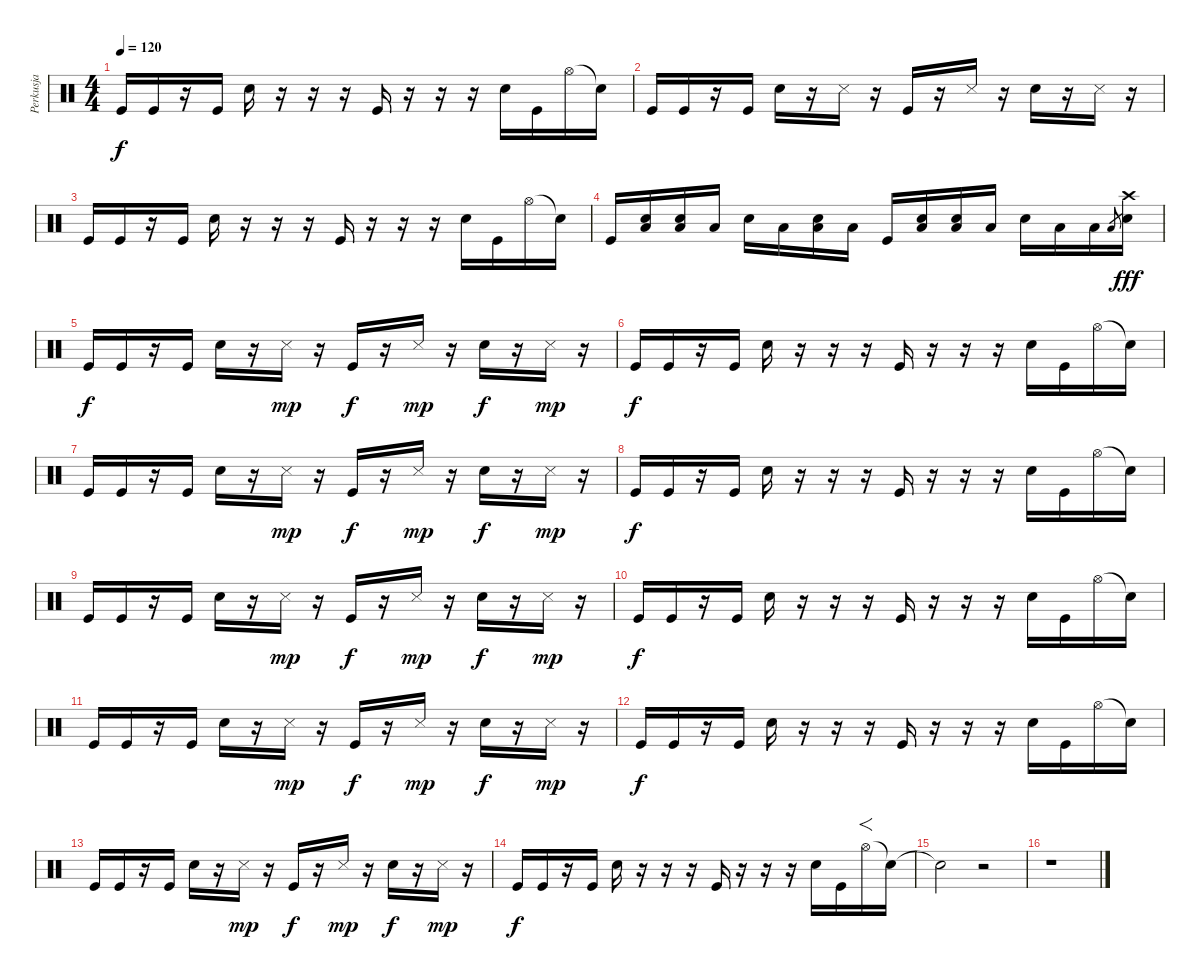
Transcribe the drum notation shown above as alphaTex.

\track ("Perkusja" "Perkusja") {instrument percussion}
\staff {score}
\articulation defaults
\ts (4 4)
\tempo 120
\clef neutral
\ks c "Kick (hit)".16{dy f} "Kick (hit)".16
r.16 "Kick (hit)".16 "Snare (hit) 2".16 r.16 r.16 r.16 "Kick (hit)".16 r.16 r.16 r.16 "Snare (hit) 2".16 "Kick (hit)".16 "Hi-Hat (open)".16 "Snare (hit)"{t}.16 |
"Kick (hit)".16 "Kick (hit)".16 r.16 "Kick (hit)".16 "Snare (hit) 2".16 r.16 "Snare (side stick) 3".16 r.16 "Kick (hit)".16 r.16 "Snare (side stick) 3".16 r.16 "Snare (hit) 2".16 r.16 "Snare (side stick) 3".16 r.16 |
"Kick (hit)".16 "Kick (hit)".16 r.16 "Kick (hit)".16 "Snare (hit) 2".16 r.16 r.16 r.16 "Kick (hit)".16 r.16 r.16 r.16 "Snare (hit) 2".16 "Kick (hit)".16 "Hi-Hat (open)".16 "Snare (hit)"{t}.16 |
"Kick (hit)".16 ("Low Tom (hit)" "Metronome (bell)").16 ("Electric Snare (hit)" "Low Tom (hit)").16 "Low Tom (hit)".16 "Snare (hit) 2".16 "Low Tom (hit)".16 ("Electric Snare (hit)" "Low Tom (hit)").16 "Low Tom (hit)".16 "Kick (hit)".16 ("Low Tom (hit)" "Metronome (bell)").16 ("Electric Snare (hit)" "Low Tom (hit)").16 "Low Tom (hit)".16 "Snare (hit) 2".16 "Low Tom (hit)".16 "Low Tom (hit)".16 "Low Tom (hit)".8{gr} ("Electric Snare (hit)" "Crash high (hit)").16{dy fff} |
"Kick (hit)".16{dy f} "Kick (hit)".16 r.16 "Kick (hit)".16 "Snare (hit) 2".16 r.16 "Snare (side stick) 3".16{dy mp} r.16 "Kick (hit)".16{dy f} r.16 "Snare (side stick) 3".16{dy mp} r.16 "Snare (hit) 2".16{dy f} r.16 "Snare (side stick) 3".16{dy mp} r.16 |
"Kick (hit)".16{dy f} "Kick (hit)".16 r.16 "Kick (hit)".16 "Snare (hit) 2".16 r.16 r.16 r.16 "Kick (hit)".16 r.16 r.16 r.16 "Snare (hit) 2".16 "Kick (hit)".16 "Hi-Hat (open)".16 "Snare (hit)"{t}.16 |
"Kick (hit)".16 "Kick (hit)".16 r.16 "Kick (hit)".16 "Snare (hit) 2".16 r.16 "Snare (side stick) 3".16{dy mp} r.16 "Kick (hit)".16{dy f} r.16 "Snare (side stick) 3".16{dy mp} r.16 "Snare (hit) 2".16{dy f} r.16 "Snare (side stick) 3".16{dy mp} r.16 |
"Kick (hit)".16{dy f} "Kick (hit)".16 r.16 "Kick (hit)".16 "Snare (hit) 2".16 r.16 r.16 r.16 "Kick (hit)".16 r.16 r.16 r.16 "Snare (hit) 2".16 "Kick (hit)".16 "Hi-Hat (open)".16 "Snare (hit)"{t}.16 |
"Kick (hit)".16 "Kick (hit)".16 r.16 "Kick (hit)".16 "Snare (hit) 2".16 r.16 "Snare (side stick) 3".16{dy mp} r.16 "Kick (hit)".16{dy f} r.16 "Snare (side stick) 3".16{dy mp} r.16 "Snare (hit) 2".16{dy f} r.16 "Snare (side stick) 3".16{dy mp} r.16 |
"Kick (hit)".16{dy f} "Kick (hit)".16 r.16 "Kick (hit)".16 "Snare (hit) 2".16 r.16 r.16 r.16 "Kick (hit)".16 r.16 r.16 r.16 "Snare (hit) 2".16 "Kick (hit)".16 "Hi-Hat (open)".16 "Snare (hit)"{t}.16 |
"Kick (hit)".16 "Kick (hit)".16 r.16 "Kick (hit)".16 "Snare (hit) 2".16 r.16 "Snare (side stick) 3".16{dy mp} r.16 "Kick (hit)".16{dy f} r.16 "Snare (side stick) 3".16{dy mp} r.16 "Snare (hit) 2".16{dy f} r.16 "Snare (side stick) 3".16{dy mp} r.16 |
"Kick (hit)".16{dy f} "Kick (hit)".16 r.16 "Kick (hit)".16 "Snare (hit) 2".16 r.16 r.16 r.16 "Kick (hit)".16 r.16 r.16 r.16 "Snare (hit) 2".16 "Kick (hit)".16 "Hi-Hat (open)".16 "Snare (hit)"{t}.16 |
"Kick (hit)".16 "Kick (hit)".16 r.16 "Kick (hit)".16 "Snare (hit) 2".16 r.16 "Snare (side stick) 3".16{dy mp} r.16 "Kick (hit)".16{dy f} r.16 "Snare (side stick) 3".16{dy mp} r.16 "Snare (hit) 2".16{dy f} r.16 "Snare (side stick) 3".16{dy mp} r.16 |
"Kick (hit)".16{dy f} "Kick (hit)".16 r.16 "Kick (hit)".16 "Snare (hit) 2".16 r.16 r.16 r.16 "Kick (hit)".16 r.16 r.16 r.16 "Snare (hit) 2".16 "Kick (hit)".16 "Hi-Hat (open)".16{f} "Snare (hit)"{t}.16 |
"Snare (hit)"{t}.2 r.2 |
r.1
